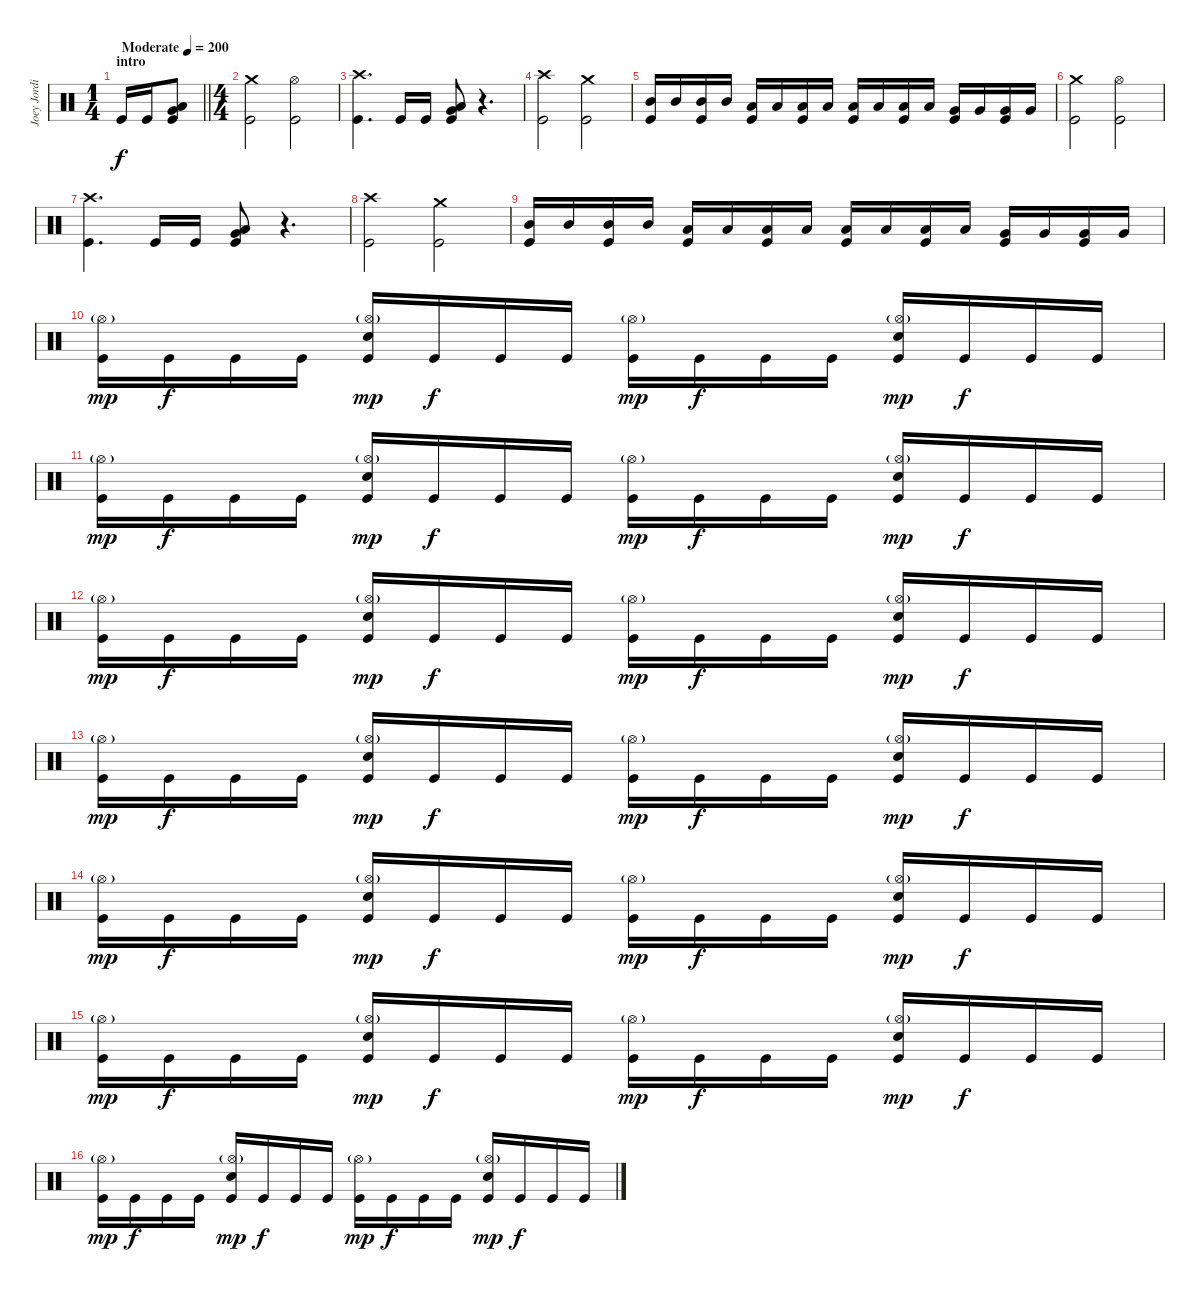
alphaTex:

\track ("Joey Jordison" "Joey Jordi") {instrument percussion}
\staff {score}
\articulation defaults
\ts (1 4)
\section ("" "intro")
\tempo (200 "Moderate")
\clef neutral
\barLineRight lightlight
\ks c "Kick (hit)".16{dy f} "Kick (hit)".16
("Low Floor Tom (hit)" "Very Low Tom (hit)" "Kick (hit)").8 |
\ts (4 4)
\section ("" "")
("Crash medium (hit)" "Kick (hit)").2 ("Hi-Hat (open)" "Kick (hit)").2 |
("Crash high (hit)" "Kick (hit)").4{d} "Kick (hit)".16 "Kick (hit)".16 ("Low Floor Tom (hit)" "Very Low Tom (hit)" "Kick (hit)").8 r.4{d} |
("Crash high (hit)" "Kick (hit)").2 ("Crash medium (hit)" "Kick (hit)").2 |
("Mid Tom (hit)" "Kick (hit)").16 "Mid Tom (hit)".16 ("Mid Tom (hit)" "Kick (hit)").16 "Mid Tom (hit)".16 ("Low Tom (hit)" "Kick (hit)").16 "Low Tom (hit)".16 ("Low Tom (hit)" "Kick (hit)").16 "Low Tom (hit)".16 ("Low Floor Tom (hit)" "Kick (hit)").16 "Low Floor Tom (hit)".16 ("Low Floor Tom (hit)" "Kick (hit)").16 "Low Floor Tom (hit)".16 ("Very Low Tom (hit)" "Kick (hit)").16 "Very Low Tom (hit)".16 ("Very Low Tom (hit)" "Kick (hit)").16 "Very Low Tom (hit)".16 |
("Crash medium (hit)" "Kick (hit)").2 ("Hi-Hat (open)" "Kick (hit)").2 |
("Crash high (hit)" "Kick (hit)").4{d} "Kick (hit)".16 "Kick (hit)".16 ("Low Floor Tom (hit)" "Very Low Tom (hit)" "Kick (hit)").8 r.4{d} |
("Crash high (hit)" "Kick (hit)").2 ("Crash medium (hit)" "Kick (hit)").2 |
("Mid Tom (hit)" "Kick (hit)").16 "Mid Tom (hit)".16 ("Mid Tom (hit)" "Kick (hit)").16 "Mid Tom (hit)".16 ("Low Tom (hit)" "Kick (hit)").16 "Low Tom (hit)".16 ("Low Tom (hit)" "Kick (hit)").16 "Low Tom (hit)".16 ("Low Floor Tom (hit)" "Kick (hit)").16 "Low Floor Tom (hit)".16 ("Low Floor Tom (hit)" "Kick (hit)").16 "Low Floor Tom (hit)".16 ("Very Low Tom (hit)" "Kick (hit)").16 "Very Low Tom (hit)".16 ("Very Low Tom (hit)" "Kick (hit)").16 "Very Low Tom (hit)".16 |
("Hi-Hat (open)"{g} "Kick (hit)").16{dy mp} "Kick (hit)".16{dy f} "Kick (hit)".16 "Kick (hit)".16 ("Hi-Hat (open)"{g} "Electric Snare (hit)" "Kick (hit)").16{dy mp} "Kick (hit)".16{dy f} "Kick (hit)".16 "Kick (hit)".16 ("Hi-Hat (open)"{g} "Kick (hit)").16{dy mp} "Kick (hit)".16{dy f} "Kick (hit)".16 "Kick (hit)".16 ("Hi-Hat (open)"{g} "Electric Snare (hit)" "Kick (hit)").16{dy mp} "Kick (hit)".16{dy f} "Kick (hit)".16 "Kick (hit)".16 |
("Hi-Hat (open)"{g} "Kick (hit)").16{dy mp} "Kick (hit)".16{dy f} "Kick (hit)".16 "Kick (hit)".16 ("Hi-Hat (open)"{g} "Electric Snare (hit)" "Kick (hit)").16{dy mp} "Kick (hit)".16{dy f} "Kick (hit)".16 "Kick (hit)".16 ("Hi-Hat (open)"{g} "Kick (hit)").16{dy mp} "Kick (hit)".16{dy f} "Kick (hit)".16 "Kick (hit)".16 ("Hi-Hat (open)"{g} "Electric Snare (hit)" "Kick (hit)").16{dy mp} "Kick (hit)".16{dy f} "Kick (hit)".16 "Kick (hit)".16 |
("Hi-Hat (open)"{g} "Kick (hit)").16{dy mp} "Kick (hit)".16{dy f} "Kick (hit)".16 "Kick (hit)".16 ("Hi-Hat (open)"{g} "Electric Snare (hit)" "Kick (hit)").16{dy mp} "Kick (hit)".16{dy f} "Kick (hit)".16 "Kick (hit)".16 ("Hi-Hat (open)"{g} "Kick (hit)").16{dy mp} "Kick (hit)".16{dy f} "Kick (hit)".16 "Kick (hit)".16 ("Hi-Hat (open)"{g} "Electric Snare (hit)" "Kick (hit)").16{dy mp} "Kick (hit)".16{dy f} "Kick (hit)".16 "Kick (hit)".16 |
("Hi-Hat (open)"{g} "Kick (hit)").16{dy mp} "Kick (hit)".16{dy f} "Kick (hit)".16 "Kick (hit)".16 ("Hi-Hat (open)"{g} "Electric Snare (hit)" "Kick (hit)").16{dy mp} "Kick (hit)".16{dy f} "Kick (hit)".16 "Kick (hit)".16 ("Hi-Hat (open)"{g} "Kick (hit)").16{dy mp} "Kick (hit)".16{dy f} "Kick (hit)".16 "Kick (hit)".16 ("Hi-Hat (open)"{g} "Electric Snare (hit)" "Kick (hit)").16{dy mp} "Kick (hit)".16{dy f} "Kick (hit)".16 "Kick (hit)".16 |
("Hi-Hat (open)"{g} "Kick (hit)").16{dy mp} "Kick (hit)".16{dy f} "Kick (hit)".16 "Kick (hit)".16 ("Hi-Hat (open)"{g} "Electric Snare (hit)" "Kick (hit)").16{dy mp} "Kick (hit)".16{dy f} "Kick (hit)".16 "Kick (hit)".16 ("Hi-Hat (open)"{g} "Kick (hit)").16{dy mp} "Kick (hit)".16{dy f} "Kick (hit)".16 "Kick (hit)".16 ("Hi-Hat (open)"{g} "Electric Snare (hit)" "Kick (hit)").16{dy mp} "Kick (hit)".16{dy f} "Kick (hit)".16 "Kick (hit)".16 |
("Hi-Hat (open)"{g} "Kick (hit)").16{dy mp} "Kick (hit)".16{dy f} "Kick (hit)".16 "Kick (hit)".16 ("Hi-Hat (open)"{g} "Electric Snare (hit)" "Kick (hit)").16{dy mp} "Kick (hit)".16{dy f} "Kick (hit)".16 "Kick (hit)".16 ("Hi-Hat (open)"{g} "Kick (hit)").16{dy mp} "Kick (hit)".16{dy f} "Kick (hit)".16 "Kick (hit)".16 ("Hi-Hat (open)"{g} "Electric Snare (hit)" "Kick (hit)").16{dy mp} "Kick (hit)".16{dy f} "Kick (hit)".16 "Kick (hit)".16 |
("Hi-Hat (open)"{g} "Kick (hit)").16{dy mp} "Kick (hit)".16{dy f} "Kick (hit)".16 "Kick (hit)".16 ("Hi-Hat (open)"{g} "Electric Snare (hit)" "Kick (hit)").16{dy mp} "Kick (hit)".16{dy f} "Kick (hit)".16 "Kick (hit)".16 ("Hi-Hat (open)"{g} "Kick (hit)").16{dy mp} "Kick (hit)".16{dy f} "Kick (hit)".16 "Kick (hit)".16 ("Hi-Hat (open)"{g} "Electric Snare (hit)" "Kick (hit)").16{dy mp} "Kick (hit)".16{dy f} "Kick (hit)".16 "Kick (hit)".16
